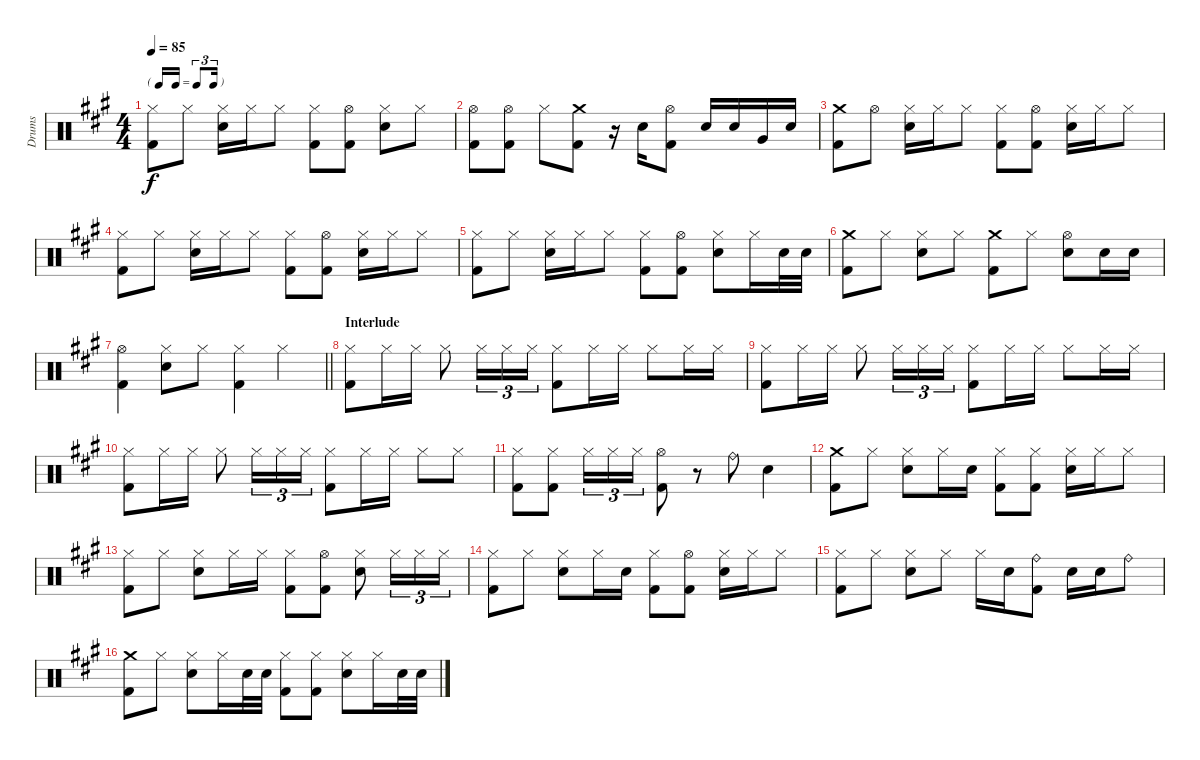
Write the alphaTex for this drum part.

\track ("Drums" "Drums") {instrument percussion}
\staff {score}
\articulation defaults
\ts (4 4)
\tf triplet16th
\tempo 85
\clef neutral
\ks a
("Hi-Hat (closed)" "Kick (hit) 2").8{dy f} "Hi-Hat (closed)".8 ("Hi-Hat (closed)" "Snare (hit) 2").16 "Hi-Hat (closed)".16 "Hi-Hat (closed)".8 ("Hi-Hat (closed)" "Kick (hit) 2").8 ("Hi-Hat (open)" "Kick (hit) 2").8 ("Hi-Hat (closed)" "Snare (hit) 2").8 "Hi-Hat (closed)".8 |
("Hi-Hat (open)" "Kick (hit) 2").8 ("Hi-Hat (open)" "Kick (hit) 2").8 "Hi-Hat (closed)".8 ("Crash medium (hit)" "Kick (hit) 2").8 r.16 "Snare (hit) 2".16 ("Hi-Hat (open)" "Kick (hit) 2").8 "Snare (hit) 2".16 "Snare (hit) 2".16 "Very Low Tom (hit)".16 "Snare (hit) 2".16 |
("Crash medium (hit)" "Kick (hit) 2").8 "Hi-Hat (open)".8 ("Hi-Hat (closed)" "Snare (hit) 2").16 "Hi-Hat (closed)".16 "Hi-Hat (closed)".8 ("Hi-Hat (closed)" "Kick (hit) 2").8 ("Hi-Hat (open)" "Kick (hit) 2").8 ("Hi-Hat (closed)" "Snare (hit) 2").16 "Hi-Hat (closed)".16 "Hi-Hat (closed)".8 |
("Hi-Hat (closed)" "Kick (hit) 2").8 "Hi-Hat (closed)".8 ("Hi-Hat (closed)" "Snare (hit) 2").16 "Hi-Hat (closed)".16 "Hi-Hat (closed)".8 ("Hi-Hat (closed)" "Kick (hit) 2").8 ("Hi-Hat (open)" "Kick (hit) 2").8 ("Hi-Hat (closed)" "Snare (hit) 2").16 "Hi-Hat (closed)".16 "Hi-Hat (closed)".8 |
("Hi-Hat (closed)" "Kick (hit) 2").8 "Hi-Hat (closed)".8 ("Hi-Hat (closed)" "Snare (hit) 2").16 "Hi-Hat (closed)".16 "Hi-Hat (closed)".8 ("Hi-Hat (closed)" "Kick (hit) 2").8 ("Hi-Hat (open)" "Kick (hit) 2").8 ("Hi-Hat (closed)" "Snare (hit) 2").8 "Hi-Hat (closed)".16 "Snare (hit) 2".32 "Snare (hit) 2".32 |
("Crash medium (hit)" "Kick (hit) 2").8 "Hi-Hat (closed)".8 ("Hi-Hat (closed)" "Snare (hit) 2").8 "Hi-Hat (closed)".8 ("Crash medium (hit)" "Kick (hit) 2").8 "Hi-Hat (closed)".8 ("Hi-Hat (open)" "Snare (hit) 2").8 "Snare (hit) 2".16 "Snare (hit) 2".16 |
\barLineRight lightlight
("Hi-Hat (open)" "Kick (hit) 2").4 ("Hi-Hat (closed)" "Snare (hit) 2").8 "Hi-Hat (closed)".8 ("Hi-Hat (closed)" "Kick (hit) 2").4 "Hi-Hat (closed)".4 |
\section ("" "Interlude")
("Hi-Hat (closed)" "Kick (hit) 2").8 "Hi-Hat (closed)".16 "Hi-Hat (closed)".16 "Hi-Hat (closed)".8 "Hi-Hat (closed)".16{tu (3 2)} "Hi-Hat (closed)".16{tu (3 2)} "Hi-Hat (closed)".16{tu (3 2)} ("Hi-Hat (closed)" "Kick (hit) 2").8 "Hi-Hat (closed)".16 "Hi-Hat (closed)".16 "Hi-Hat (closed)".8 "Hi-Hat (closed)".16 "Hi-Hat (closed)".16 |
("Hi-Hat (closed)" "Kick (hit) 2").8 "Hi-Hat (closed)".16 "Hi-Hat (closed)".16 "Hi-Hat (closed)".8 "Hi-Hat (closed)".16{tu (3 2)} "Hi-Hat (closed)".16{tu (3 2)} "Hi-Hat (closed)".16{tu (3 2)} ("Hi-Hat (closed)" "Kick (hit) 2").8 "Hi-Hat (closed)".16 "Hi-Hat (closed)".16 "Hi-Hat (closed)".8 "Hi-Hat (closed)".16 "Hi-Hat (closed)".16 |
("Hi-Hat (closed)" "Kick (hit) 2").8 "Hi-Hat (closed)".16 "Hi-Hat (closed)".16 "Hi-Hat (closed)".8 "Hi-Hat (closed)".16{tu (3 2)} "Hi-Hat (closed)".16{tu (3 2)} "Hi-Hat (closed)".16{tu (3 2)} ("Hi-Hat (closed)" "Kick (hit) 2").8 "Hi-Hat (closed)".16 "Hi-Hat (closed)".16 "Hi-Hat (closed)".8 "Hi-Hat (closed)".8 |
("Hi-Hat (closed)" "Kick (hit) 2").8 ("Hi-Hat (closed)" "Kick (hit) 2").8 "Hi-Hat (closed)".16{tu (3 2)} "Hi-Hat (closed)".16{tu (3 2)} "Hi-Hat (closed)".16{tu (3 2)} ("Hi-Hat (open)" "Kick (hit) 2").8 r.8 "Ride (bell)".8 "Snare (hit) 2".4 |
("Crash medium (hit)" "Kick (hit) 2").8 "Hi-Hat (closed)".8 ("Hi-Hat (closed)" "Snare (hit) 2").8 "Hi-Hat (closed)".16 "Snare (hit) 2".16 ("Hi-Hat (closed)" "Kick (hit) 2").8 ("Hi-Hat (closed)" "Kick (hit) 2").8 ("Hi-Hat (closed)" "Snare (hit) 2").16 "Hi-Hat (closed)".16 "Hi-Hat (closed)".8 |
("Hi-Hat (closed)" "Kick (hit) 2").8 "Hi-Hat (closed)".8 ("Hi-Hat (closed)" "Snare (hit) 2").8 "Hi-Hat (closed)".16 "Hi-Hat (closed)".16 ("Hi-Hat (closed)" "Kick (hit) 2").8 ("Hi-Hat (open)" "Kick (hit) 2").8 ("Hi-Hat (closed)" "Snare (hit) 2").8 "Hi-Hat (closed)".16{tu (3 2)} "Hi-Hat (closed)".16{tu (3 2)} "Hi-Hat (closed)".16{tu (3 2)} |
("Hi-Hat (closed)" "Kick (hit) 2").8 "Hi-Hat (closed)".8 ("Hi-Hat (closed)" "Snare (hit) 2").8 "Hi-Hat (closed)".16 "Snare (hit) 2".16 ("Hi-Hat (closed)" "Kick (hit) 2").8 ("Hi-Hat (open)" "Kick (hit) 2").8 ("Hi-Hat (closed)" "Snare (hit) 2").16 "Hi-Hat (closed)".16 "Hi-Hat (closed)".8 |
("Hi-Hat (closed)" "Kick (hit) 2").8 "Hi-Hat (closed)".8 ("Hi-Hat (closed)" "Snare (hit) 2").8 "Hi-Hat (closed)".8 "Hi-Hat (closed)".16 "Snare (hit) 2".16 ("Ride (bell)" "Kick (hit) 2").8 "Snare (hit) 2".16 "Snare (hit) 2".16 "Ride (bell)".8 |
("Crash medium (hit)" "Kick (hit) 2").8 "Hi-Hat (closed)".8 ("Hi-Hat (closed)" "Snare (hit) 2").8 "Hi-Hat (closed)".16 "Snare (hit) 2".32 "Snare (hit) 2".32 ("Hi-Hat (closed)" "Kick (hit) 2").8 ("Hi-Hat (closed)" "Kick (hit) 2").8 ("Hi-Hat (closed)" "Snare (hit) 2").8 "Hi-Hat (closed)".16 "Snare (hit) 2".32 "Snare (hit) 2".32
